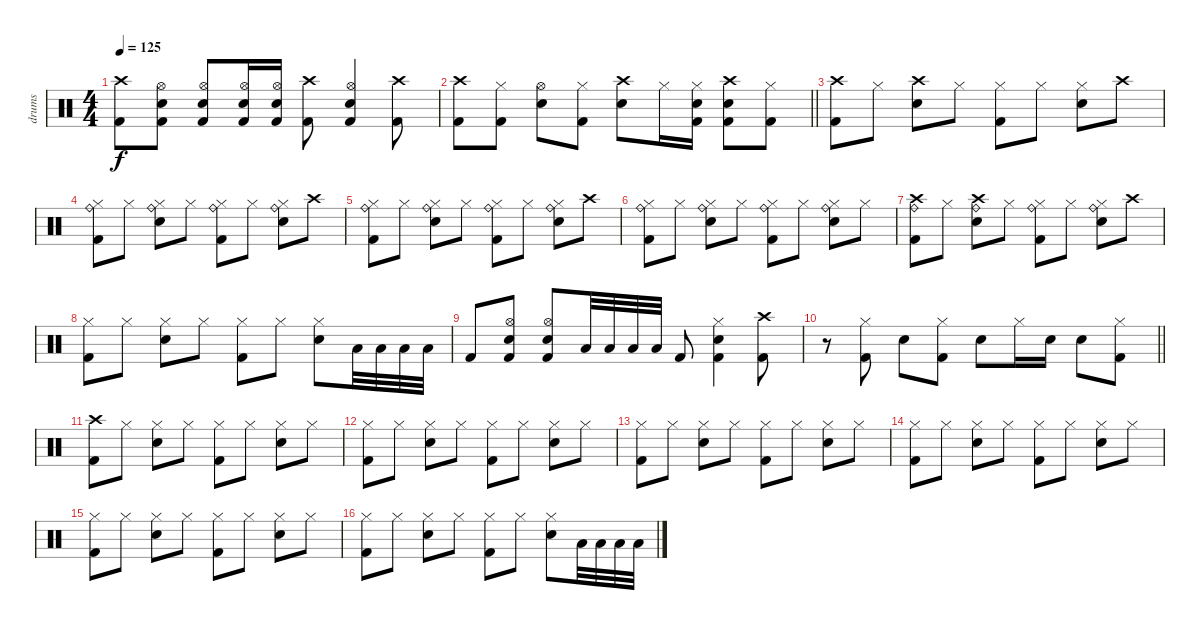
\track ("drums" "drums") {instrument percussion}
\staff {score}
\articulation defaults
\ts (4 4)
\tempo 125
\clef neutral
\ks c
("Crash high (hit)" "Kick (hit) 2").8{dy f} ("Hi-Hat (open)" "Snare (hit) 2" "Kick (hit) 2").8 ("Hi-Hat (open)" "Snare (hit) 2" "Kick (hit) 2").8 ("Hi-Hat (open)" "Snare (hit) 2" "Kick (hit) 2").16 ("Hi-Hat (open)" "Snare (hit) 2" "Kick (hit) 2").16 ("Crash high (hit)" "Kick (hit) 2").8 ("Hi-Hat (open)" "Snare (hit) 2" "Kick (hit) 2").4 ("Crash high (hit)" "Kick (hit) 2").8 |
\barLineRight lightlight
("Crash high (hit)" "Kick (hit) 2").8 ("Hi-Hat (closed)" "Kick (hit) 2").8 ("Hi-Hat (open)" "Snare (hit) 2").8 ("Hi-Hat (closed)" "Kick (hit) 2").8 ("Crash high (hit)" "Snare (hit) 2").8 "Hi-Hat (closed)".16 ("Hi-Hat (closed)" "Snare (hit) 2" "Kick (hit) 2").16 ("Crash high (hit)" "Snare (hit) 2" "Kick (hit) 2").8 ("Hi-Hat (closed)" "Kick (hit) 2").8 |
("Crash high (hit)" "Kick (hit) 2").8 "Hi-Hat (closed)".8 ("Crash high (hit)" "Snare (hit) 2").8 "Hi-Hat (closed)".8 ("Hi-Hat (closed)" "Kick (hit) 2").8 "Hi-Hat (closed)".8 ("Hi-Hat (closed)" "Snare (hit) 2").8 "Crash high (hit)".8 |
("Hi-Hat (closed)" "Ride (bell)" "Kick (hit) 2").8 "Hi-Hat (closed)".8 ("Hi-Hat (closed)" "Snare (hit) 2" "Ride (bell)").8 "Hi-Hat (closed)".8 ("Hi-Hat (closed)" "Ride (bell)" "Kick (hit) 2").8 "Hi-Hat (closed)".8 ("Hi-Hat (closed)" "Snare (hit) 2" "Ride (bell)").8 "Crash high (hit)".8 |
("Hi-Hat (closed)" "Ride (bell)" "Kick (hit) 2").8 "Hi-Hat (closed)".8 ("Hi-Hat (closed)" "Snare (hit) 2" "Ride (bell)").8 "Hi-Hat (closed)".8 ("Hi-Hat (closed)" "Ride (bell)" "Kick (hit) 2").8 "Hi-Hat (closed)".8 ("Hi-Hat (closed)" "Snare (hit) 2" "Ride (bell)").8 "Crash high (hit)".8 |
("Hi-Hat (closed)" "Ride (bell)" "Kick (hit) 2").8 "Hi-Hat (closed)".8 ("Hi-Hat (closed)" "Snare (hit) 2" "Ride (bell)").8 "Hi-Hat (closed)".8 ("Hi-Hat (closed)" "Ride (bell)" "Kick (hit) 2").8 "Hi-Hat (closed)".8 ("Hi-Hat (closed)" "Snare (hit) 2" "Ride (bell)").8 "Hi-Hat (closed)".8 |
("Crash high (hit)" "Ride (bell)" "Kick (hit) 2").8 "Hi-Hat (closed)".8 ("Crash high (hit)" "Snare (hit) 2" "Ride (bell)").8 "Hi-Hat (closed)".8 ("Hi-Hat (closed)" "Ride (bell)" "Kick (hit) 2").8 "Hi-Hat (closed)".8 ("Hi-Hat (closed)" "Snare (hit) 2" "Ride (bell)").8 "Crash high (hit)".8 |
("Hi-Hat (closed)" "Kick (hit) 2").8 "Hi-Hat (closed)".8 ("Hi-Hat (closed)" "Snare (hit) 2").8 "Hi-Hat (closed)".8 ("Hi-Hat (closed)" "Kick (hit) 2").8 "Hi-Hat (closed)".8 ("Hi-Hat (closed)" "Snare (hit) 2").8 "Low Tom (hit)".32 "Low Tom (hit)".32 "Low Tom (hit)".32 "Low Tom (hit)".32 |
"Kick (hit) 2".8 ("Hi-Hat (open)" "Snare (hit) 2" "Kick (hit) 2").8 ("Hi-Hat (open)" "Snare (hit) 2" "Kick (hit) 2").8 "Low Tom (hit)".32 "Low Tom (hit)".32 "Low Tom (hit)".32 "Low Tom (hit)".32 "Kick (hit) 2".8 ("Hi-Hat (closed)" "Snare (hit) 2" "Kick (hit) 2").4 ("Crash high (hit)" "Kick (hit) 2").8 |
\barLineRight lightlight
r.8 ("Hi-Hat (closed)" "Kick (hit) 2").8 "Snare (hit) 2".8 ("Hi-Hat (closed)" "Kick (hit) 2").8 "Snare (hit) 2".8 "Hi-Hat (closed)".16 "Snare (hit) 2".16 "Snare (hit) 2".8 ("Hi-Hat (closed)" "Kick (hit) 2").8 |
("Crash high (hit)" "Kick (hit) 2").8 "Hi-Hat (closed)".8 ("Hi-Hat (closed)" "Snare (hit) 2").8 "Hi-Hat (closed)".8 ("Hi-Hat (closed)" "Kick (hit) 2").8 "Hi-Hat (closed)".8 ("Hi-Hat (closed)" "Snare (hit) 2").8 "Hi-Hat (closed)".8 |
("Hi-Hat (closed)" "Kick (hit) 2").8 "Hi-Hat (closed)".8 ("Hi-Hat (closed)" "Snare (hit) 2").8 "Hi-Hat (closed)".8 ("Hi-Hat (closed)" "Kick (hit) 2").8 "Hi-Hat (closed)".8 ("Hi-Hat (closed)" "Snare (hit) 2").8 "Hi-Hat (closed)".8 |
("Hi-Hat (closed)" "Kick (hit) 2").8 "Hi-Hat (closed)".8 ("Hi-Hat (closed)" "Snare (hit) 2").8 "Hi-Hat (closed)".8 ("Hi-Hat (closed)" "Kick (hit) 2").8 "Hi-Hat (closed)".8 ("Hi-Hat (closed)" "Snare (hit) 2").8 "Hi-Hat (closed)".8 |
("Hi-Hat (closed)" "Kick (hit) 2").8 "Hi-Hat (closed)".8 ("Hi-Hat (closed)" "Snare (hit) 2").8 "Hi-Hat (closed)".8 ("Hi-Hat (closed)" "Kick (hit) 2").8 "Hi-Hat (closed)".8 ("Hi-Hat (closed)" "Snare (hit) 2").8 "Hi-Hat (closed)".8 |
("Hi-Hat (closed)" "Kick (hit) 2").8 "Hi-Hat (closed)".8 ("Hi-Hat (closed)" "Snare (hit) 2").8 "Hi-Hat (closed)".8 ("Hi-Hat (closed)" "Kick (hit) 2").8 "Hi-Hat (closed)".8 ("Hi-Hat (closed)" "Snare (hit) 2").8 "Hi-Hat (closed)".8 |
("Hi-Hat (closed)" "Kick (hit) 2").8 "Hi-Hat (closed)".8 ("Hi-Hat (closed)" "Snare (hit) 2").8 "Hi-Hat (closed)".8 ("Hi-Hat (closed)" "Kick (hit) 2").8 "Hi-Hat (closed)".8 ("Hi-Hat (closed)" "Snare (hit) 2").8 "Low Tom (hit)".32 "Low Tom (hit)".32 "Low Tom (hit)".32 "Low Tom (hit)".32
